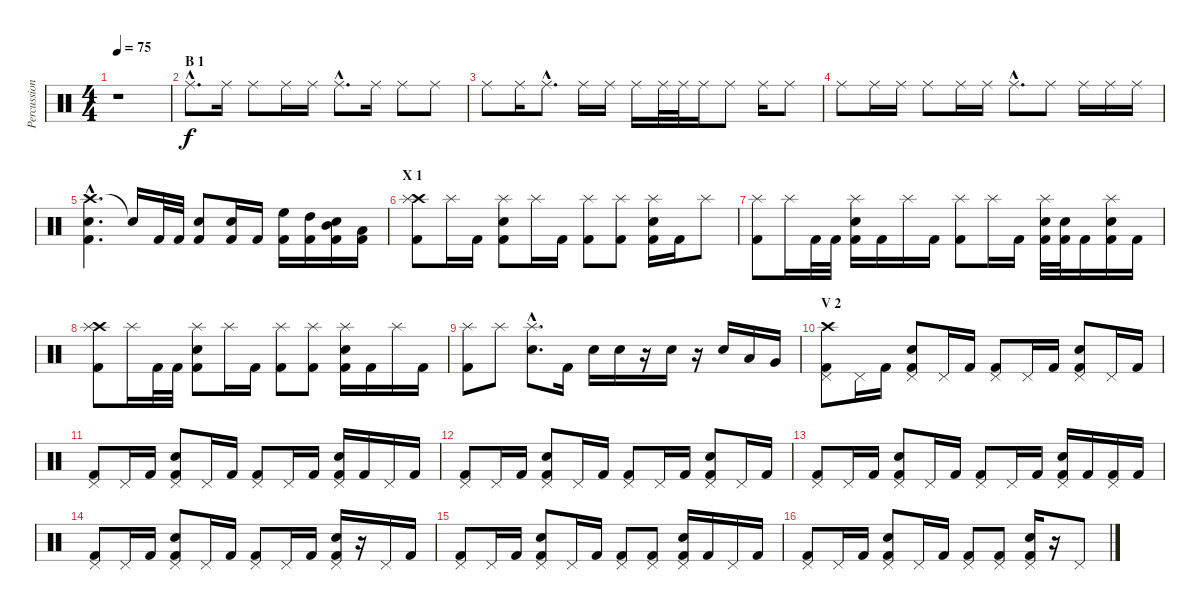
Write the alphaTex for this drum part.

\track ("Percussion" "Percussion") {instrument percussion}
\staff {score}
\articulation defaults
\ts (4 4)
\tempo 75
\clef neutral
\ks c
r.1{dy f} |
\section ("" "B 1")
"Ride (middle)"{hac}.8{d volume 8} "Ride (middle)".16 "Ride (middle)".8 "Ride (middle)".16 "Ride (middle)".16 "Ride (middle)"{hac}.8{d} "Ride (middle)".16 "Ride (middle)".8 "Ride (middle)".8 |
"Ride (middle)".8 "Ride (middle)".16 "Ride (middle)"{hac}.8{d} "Ride (middle)".16 "Ride (middle)".16 "Ride (middle)".16 "Ride (middle)".32 "Ride (middle)".32 "Ride (middle)".16 "Ride (middle)".8 "Ride (middle)".16 "Ride (middle)".8 |
"Ride (middle)".8 "Ride (middle)".16 "Ride (middle)".16 "Ride (middle)".8 "Ride (middle)".16 "Ride (middle)".16 "Ride (middle)"{hac}.8{d} "Ride (middle)".8 "Ride (middle)".16 "Ride (middle)".16 "Ride (middle)".16 |
("Crash high (hit)"{hac} "Kick (hit) 2"{hac} "Snare (hit) 2"{hac}).4{d volume 13} "Snare (hit)"{t}.16 "Kick (hit) 2".32 "Kick (hit) 2".32 ("Snare (hit) 2" "Kick (hit) 2").8 ("Snare (hit) 2" "Kick (hit) 2").16 "Kick (hit) 2".16 ("Kick (hit) 2" "High Floor Tom (hit)").16 ("Kick (hit) 2" "High Tom (hit)").16 ("Snare (hit) 2" "Kick (hit) 2" "Mid Tom (hit)").16 ("Kick (hit) 2" "Low Tom (hit)").16 |
\section ("" "X 1")
("Crash high (hit)" "Splash (hit)" "Kick (hit) 2").8 "Splash (hit)".16 "Kick (hit) 2".16 ("Splash (hit)" "Snare (hit) 2" "Kick (hit) 2").8 "Splash (hit)".16 "Kick (hit) 2".16 ("Splash (hit)" "Kick (hit) 2").8 ("Splash (hit)" "Kick (hit) 2").8 ("Splash (hit)" "Snare (hit) 2" "Kick (hit) 2").16 "Kick (hit) 2".16 "Splash (hit)".8 |
("Splash (hit)" "Kick (hit) 2").8 "Splash (hit)".16 "Kick (hit) 2".32 "Kick (hit) 2".32 ("Splash (hit)" "Snare (hit) 2" "Kick (hit) 2").16 "Kick (hit) 2".16 "Splash (hit)".16 "Kick (hit) 2".16 ("Splash (hit)" "Kick (hit) 2").8 "Splash (hit)".16 "Kick (hit) 2".16 ("Splash (hit)" "Snare (hit) 2" "Kick (hit) 2").32 ("Snare (hit) 2" "Kick (hit) 2").32 "Kick (hit) 2".16 ("Splash (hit)" "Snare (hit) 2" "Kick (hit) 2").16 "Kick (hit) 2".16 |
("Crash high (hit)" "Splash (hit)" "Kick (hit) 2").8 "Splash (hit)".16 "Kick (hit) 2".32 "Kick (hit) 2".32 ("Splash (hit)" "Snare (hit) 2" "Kick (hit) 2").8 "Splash (hit)".16 "Kick (hit) 2".16 ("Splash (hit)" "Kick (hit) 2").8 ("Splash (hit)" "Kick (hit) 2").8 ("Splash (hit)" "Snare (hit) 2" "Kick (hit) 2").16 "Kick (hit) 2".16 "Splash (hit)".16 "Kick (hit) 2".16 |
("Splash (hit)" "Kick (hit) 2").8 "Splash (hit)".8 ("Splash (hit)"{hac} "Snare (hit) 2"{hac}).8{d} "Kick (hit) 2".16 "Snare (hit) 2".16 "Snare (hit) 2".16 r.16 "Snare (hit) 2".16 r.16 "Snare (hit) 2".16 "Low Tom (hit)".16 "Very Low Tom (hit)".16 |
\section ("" "V 2")
("Crash high (hit)" "Pedal Hi-Hat (hit)" "Kick (hit) 2").8 "Pedal Hi-Hat (hit)".16 "Kick (hit) 2".16 ("Pedal Hi-Hat (hit)" "Snare (hit) 2" "Kick (hit) 2").8 "Pedal Hi-Hat (hit)".16 "Kick (hit) 2".16 ("Pedal Hi-Hat (hit)" "Kick (hit) 2").8 "Pedal Hi-Hat (hit)".16 "Kick (hit) 2".16 ("Pedal Hi-Hat (hit)" "Snare (hit) 2" "Kick (hit) 2").8 "Pedal Hi-Hat (hit)".16 "Kick (hit) 2".16 |
("Pedal Hi-Hat (hit)" "Kick (hit) 2").8 "Pedal Hi-Hat (hit)".16 "Kick (hit) 2".16 ("Pedal Hi-Hat (hit)" "Snare (hit) 2" "Kick (hit) 2").8 "Pedal Hi-Hat (hit)".16 "Kick (hit) 2".16 ("Pedal Hi-Hat (hit)" "Kick (hit) 2").8 "Pedal Hi-Hat (hit)".16 "Kick (hit) 2".16 ("Pedal Hi-Hat (hit)" "Snare (hit) 2" "Kick (hit) 2").16 "Kick (hit) 2".16 "Pedal Hi-Hat (hit)".16 "Kick (hit) 2".16 |
("Pedal Hi-Hat (hit)" "Kick (hit) 2").8 "Pedal Hi-Hat (hit)".16 "Kick (hit) 2".16 ("Pedal Hi-Hat (hit)" "Snare (hit) 2" "Kick (hit) 2").8 "Pedal Hi-Hat (hit)".16 "Kick (hit) 2".16 ("Pedal Hi-Hat (hit)" "Kick (hit) 2").8 "Pedal Hi-Hat (hit)".16 "Kick (hit) 2".16 ("Pedal Hi-Hat (hit)" "Snare (hit) 2" "Kick (hit) 2").8 "Pedal Hi-Hat (hit)".16 "Kick (hit) 2".16 |
("Pedal Hi-Hat (hit)" "Kick (hit) 2").8 "Pedal Hi-Hat (hit)".16 "Kick (hit) 2".16 ("Pedal Hi-Hat (hit)" "Snare (hit) 2" "Kick (hit) 2").8 "Pedal Hi-Hat (hit)".16 "Kick (hit) 2".16 ("Pedal Hi-Hat (hit)" "Kick (hit) 2").8 "Pedal Hi-Hat (hit)".16 "Kick (hit) 2".16 ("Pedal Hi-Hat (hit)" "Snare (hit) 2" "Kick (hit) 2").16 "Kick (hit) 2".16 ("Pedal Hi-Hat (hit)" "Kick (hit) 2").16 "Kick (hit) 2".16 |
("Pedal Hi-Hat (hit)" "Kick (hit) 2").8 "Pedal Hi-Hat (hit)".16 "Kick (hit) 2".16 ("Pedal Hi-Hat (hit)" "Snare (hit) 2" "Kick (hit) 2").8 "Pedal Hi-Hat (hit)".16 "Kick (hit) 2".16 ("Pedal Hi-Hat (hit)" "Kick (hit) 2").8 "Pedal Hi-Hat (hit)".16 "Kick (hit) 2".16 ("Pedal Hi-Hat (hit)" "Snare (hit) 2" "Kick (hit) 2").16 r.16 "Pedal Hi-Hat (hit)".16 "Kick (hit) 2".16 |
("Pedal Hi-Hat (hit)" "Kick (hit) 2").8 "Pedal Hi-Hat (hit)".16 "Kick (hit) 2".16 ("Pedal Hi-Hat (hit)" "Snare (hit) 2" "Kick (hit) 2").8 "Pedal Hi-Hat (hit)".16 "Kick (hit) 2".16 ("Pedal Hi-Hat (hit)" "Kick (hit) 2").8 ("Pedal Hi-Hat (hit)" "Kick (hit) 2").8 ("Pedal Hi-Hat (hit)" "Snare (hit) 2" "Kick (hit) 2").16 "Kick (hit) 2".16 "Pedal Hi-Hat (hit)".16 "Kick (hit) 2".16 |
("Pedal Hi-Hat (hit)" "Kick (hit) 2").8 "Pedal Hi-Hat (hit)".16 "Kick (hit) 2".16 ("Pedal Hi-Hat (hit)" "Snare (hit) 2" "Kick (hit) 2").8 "Pedal Hi-Hat (hit)".16 "Kick (hit) 2".16 ("Pedal Hi-Hat (hit)" "Kick (hit) 2").8 ("Pedal Hi-Hat (hit)" "Kick (hit) 2").8 ("Pedal Hi-Hat (hit)" "Snare (hit) 2" "Kick (hit) 2").16 r.16 "Pedal Hi-Hat (hit)".8
